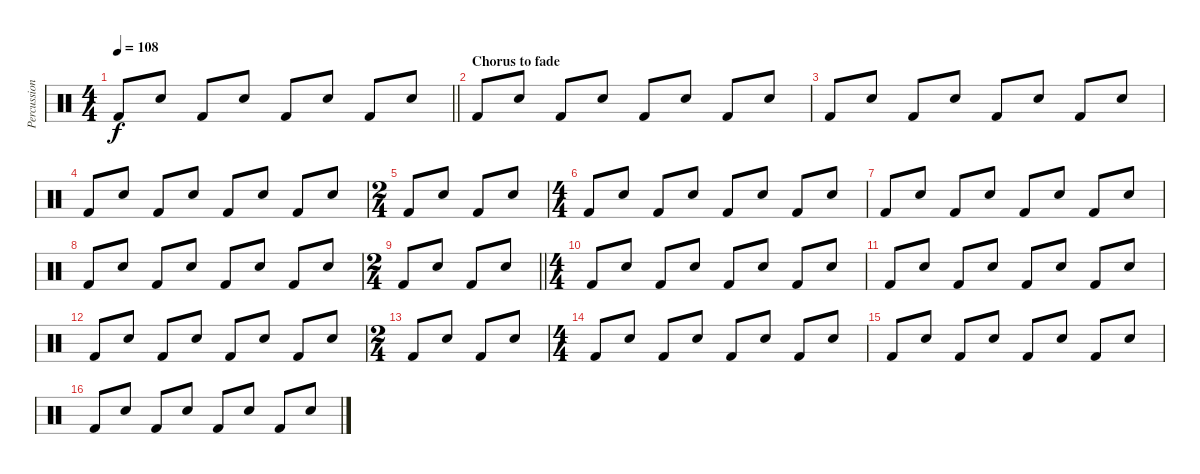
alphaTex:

\track ("Percussion" "Percussion") {instrument percussion}
\staff {score}
\articulation defaults
\ts (4 4)
\tempo 108
\clef neutral
\barLineRight lightlight
\ks c "Kick (hit) 2".8{dy f} "Snare (hit) 2".8 "Kick (hit) 2".8 "Snare (hit) 2".8 "Kick (hit) 2".8 "Snare (hit) 2".8 "Kick (hit) 2".8 "Snare (hit) 2".8
|
\section ("" "Chorus to fade")
"Kick (hit) 2".8 "Snare (hit) 2".8 "Kick (hit) 2".8 "Snare (hit) 2".8 "Kick (hit) 2".8 "Snare (hit) 2".8 "Kick (hit) 2".8 "Snare (hit) 2".8 |
"Kick (hit) 2".8 "Snare (hit) 2".8 "Kick (hit) 2".8 "Snare (hit) 2".8 "Kick (hit) 2".8 "Snare (hit) 2".8 "Kick (hit) 2".8 "Snare (hit) 2".8 |
"Kick (hit) 2".8 "Snare (hit) 2".8 "Kick (hit) 2".8 "Snare (hit) 2".8 "Kick (hit) 2".8 "Snare (hit) 2".8 "Kick (hit) 2".8 "Snare (hit) 2".8 |
\ts (2 4)
"Kick (hit) 2".8 "Snare (hit) 2".8 "Kick (hit) 2".8 "Snare (hit) 2".8 |
\ts (4 4)
"Kick (hit) 2".8 "Snare (hit) 2".8 "Kick (hit) 2".8 "Snare (hit) 2".8 "Kick (hit) 2".8 "Snare (hit) 2".8 "Kick (hit) 2".8 "Snare (hit) 2".8 |
"Kick (hit) 2".8 "Snare (hit) 2".8 "Kick (hit) 2".8 "Snare (hit) 2".8 "Kick (hit) 2".8 "Snare (hit) 2".8 "Kick (hit) 2".8 "Snare (hit) 2".8 |
"Kick (hit) 2".8 "Snare (hit) 2".8 "Kick (hit) 2".8 "Snare (hit) 2".8 "Kick (hit) 2".8 "Snare (hit) 2".8 "Kick (hit) 2".8 "Snare (hit) 2".8 |
\ts (2 4)
\barLineRight lightlight "Kick (hit) 2".8 "Snare (hit) 2".8 "Kick (hit) 2".8 "Snare (hit) 2".8
|
\ts (4 4)
"Kick (hit) 2".8 "Snare (hit) 2".8 "Kick (hit) 2".8 "Snare (hit) 2".8 "Kick (hit) 2".8 "Snare (hit) 2".8 "Kick (hit) 2".8 "Snare (hit) 2".8 |
"Kick (hit) 2".8 "Snare (hit) 2".8 "Kick (hit) 2".8 "Snare (hit) 2".8 "Kick (hit) 2".8 "Snare (hit) 2".8 "Kick (hit) 2".8 "Snare (hit) 2".8 |
"Kick (hit) 2".8 "Snare (hit) 2".8 "Kick (hit) 2".8 "Snare (hit) 2".8 "Kick (hit) 2".8 "Snare (hit) 2".8 "Kick (hit) 2".8 "Snare (hit) 2".8 |
\ts (2 4)
"Kick (hit) 2".8 "Snare (hit) 2".8 "Kick (hit) 2".8 "Snare (hit) 2".8 |
\ts (4 4)
"Kick (hit) 2".8 "Snare (hit) 2".8 "Kick (hit) 2".8 "Snare (hit) 2".8 "Kick (hit) 2".8 "Snare (hit) 2".8 "Kick (hit) 2".8 "Snare (hit) 2".8 |
"Kick (hit) 2".8 "Snare (hit) 2".8 "Kick (hit) 2".8 "Snare (hit) 2".8 "Kick (hit) 2".8 "Snare (hit) 2".8 "Kick (hit) 2".8 "Snare (hit) 2".8 |
"Kick (hit) 2".8 "Snare (hit) 2".8 "Kick (hit) 2".8 "Snare (hit) 2".8 "Kick (hit) 2".8 "Snare (hit) 2".8 "Kick (hit) 2".8 "Snare (hit) 2".8
